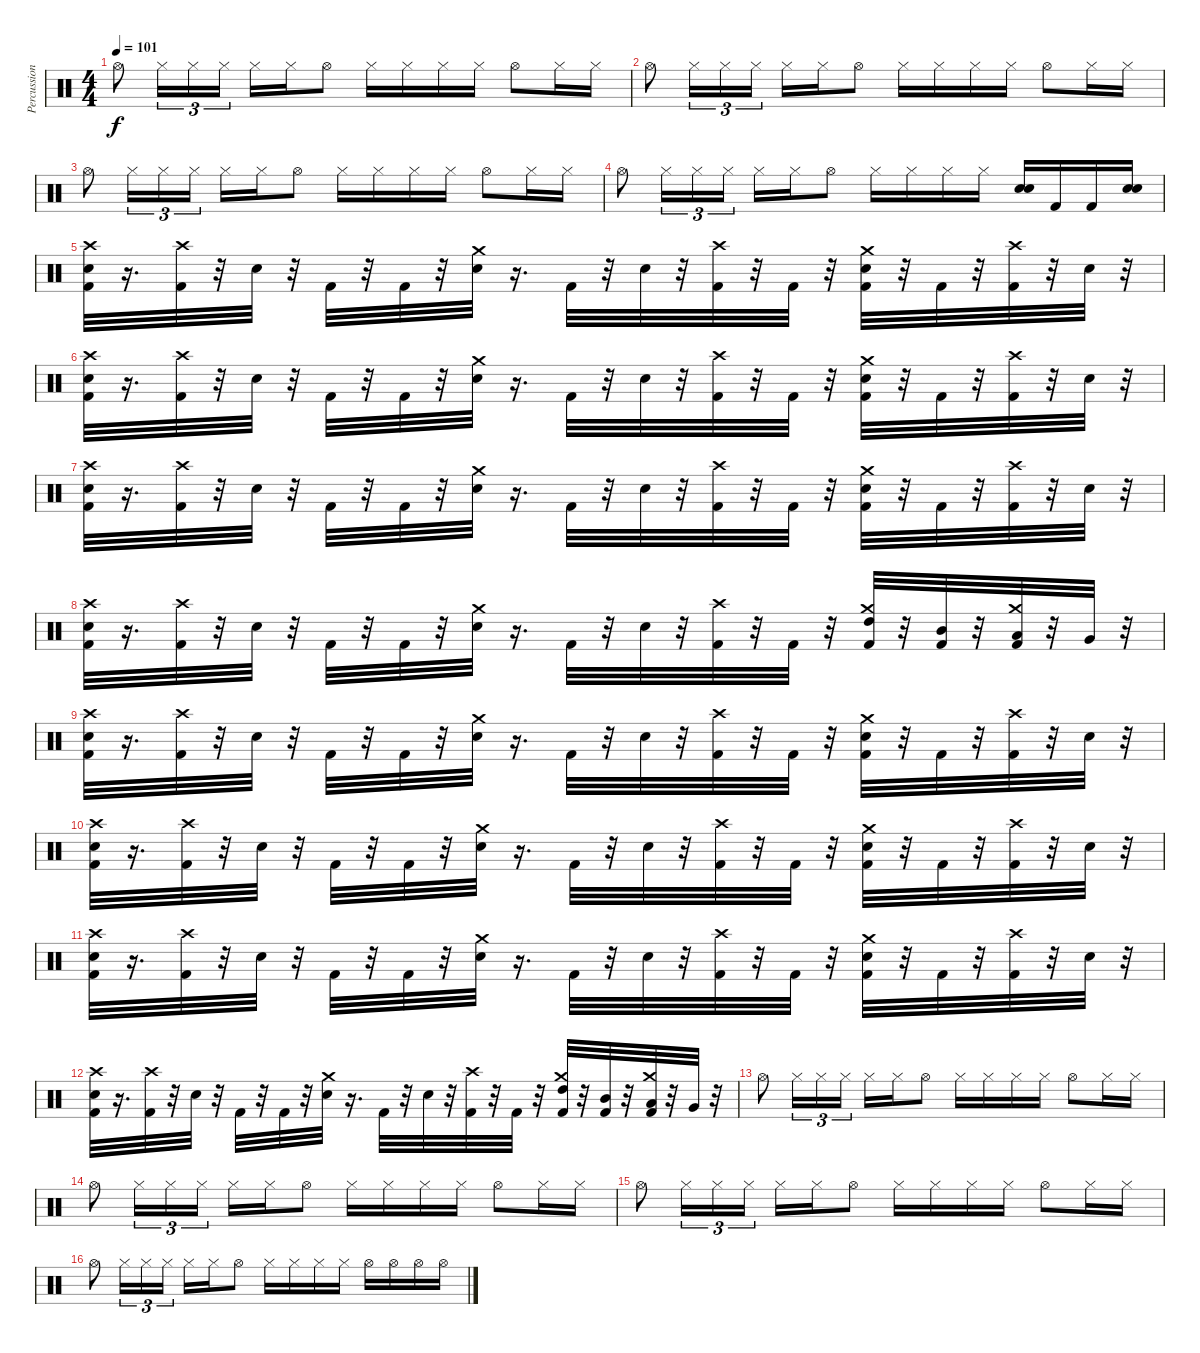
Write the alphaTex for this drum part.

\track ("Percussion" "Percussion") {instrument percussion}
\staff {score}
\articulation defaults
\ts (4 4)
\tempo 101
\clef neutral
\ks c "Hi-Hat (open)".8{dy f} "Hi-Hat (closed)".16{tu (3 2)} "Hi-Hat (closed)".16{tu (3 2)} "Hi-Hat (closed)".16{tu (3 2)} "Hi-Hat (closed)".16 "Hi-Hat (closed)".16 "Hi-Hat (open)".8 "Hi-Hat (closed)".16 "Hi-Hat (closed)".16 "Hi-Hat (closed)".16 "Hi-Hat (closed)".16 "Hi-Hat (open)".8 "Hi-Hat (closed)".16 "Hi-Hat (closed)".16
|
"Hi-Hat (open)".8 "Hi-Hat (closed)".16{tu (3 2)} "Hi-Hat (closed)".16{tu (3 2)} "Hi-Hat (closed)".16{tu (3 2)} "Hi-Hat (closed)".16 "Hi-Hat (closed)".16 "Hi-Hat (open)".8 "Hi-Hat (closed)".16 "Hi-Hat (closed)".16 "Hi-Hat (closed)".16 "Hi-Hat (closed)".16 "Hi-Hat (open)".8 "Hi-Hat (closed)".16 "Hi-Hat (closed)".16 |
"Hi-Hat (open)".8 "Hi-Hat (closed)".16{tu (3 2)} "Hi-Hat (closed)".16{tu (3 2)} "Hi-Hat (closed)".16{tu (3 2)} "Hi-Hat (closed)".16 "Hi-Hat (closed)".16 "Hi-Hat (open)".8 "Hi-Hat (closed)".16 "Hi-Hat (closed)".16 "Hi-Hat (closed)".16 "Hi-Hat (closed)".16 "Hi-Hat (open)".8 "Hi-Hat (closed)".16 "Hi-Hat (closed)".16 |
"Hi-Hat (open)".8 "Hi-Hat (closed)".16{tu (3 2)} "Hi-Hat (closed)".16{tu (3 2)} "Hi-Hat (closed)".16{tu (3 2)} "Hi-Hat (closed)".16 "Hi-Hat (closed)".16 "Hi-Hat (open)".8 "Hi-Hat (closed)".16 "Hi-Hat (closed)".16 "Hi-Hat (closed)".16 "Hi-Hat (closed)".16 ("Snare (hit) 2" "Electric Snare (hit)").16 "Kick (hit) 2".16 "Kick (hit) 2".16 ("Snare (hit) 2" "Electric Snare (hit)").16 |
("Crash high (hit)" "Snare (hit) 2" "Kick (hit) 2").32 r.16{d} ("Crash high (hit)" "Kick (hit) 2").32 r.32 "Snare (hit) 2".32 r.32 "Kick (hit) 2".32 r.32 "Kick (hit) 2".32 r.32 ("Crash medium (hit)" "Snare (hit) 2").32 r.16{d} "Kick (hit) 2".32 r.32 "Snare (hit) 2".32 r.32 ("Crash high (hit)" "Kick (hit) 2").32 r.32 "Kick (hit) 2".32 r.32 ("Crash medium (hit)" "Snare (hit) 2" "Kick (hit) 2").32 r.32 "Kick (hit) 2".32 r.32 ("Crash high (hit)" "Kick (hit) 2").32 r.32 "Snare (hit) 2".32 r.32 |
("Crash high (hit)" "Snare (hit) 2" "Kick (hit) 2").32 r.16{d} ("Crash high (hit)" "Kick (hit) 2").32 r.32 "Snare (hit) 2".32 r.32 "Kick (hit) 2".32 r.32 "Kick (hit) 2".32 r.32 ("Crash medium (hit)" "Snare (hit) 2").32 r.16{d} "Kick (hit) 2".32 r.32 "Snare (hit) 2".32 r.32 ("Crash high (hit)" "Kick (hit) 2").32 r.32 "Kick (hit) 2".32 r.32 ("Crash medium (hit)" "Snare (hit) 2" "Kick (hit) 2").32 r.32 "Kick (hit) 2".32 r.32 ("Crash high (hit)" "Kick (hit) 2").32 r.32 "Snare (hit) 2".32 r.32 |
("Crash high (hit)" "Snare (hit) 2" "Kick (hit) 2").32 r.16{d} ("Crash high (hit)" "Kick (hit) 2").32 r.32 "Snare (hit) 2".32 r.32 "Kick (hit) 2".32 r.32 "Kick (hit) 2".32 r.32 ("Crash medium (hit)" "Snare (hit) 2").32 r.16{d} "Kick (hit) 2".32 r.32 "Snare (hit) 2".32 r.32 ("Crash high (hit)" "Kick (hit) 2").32 r.32 "Kick (hit) 2".32 r.32 ("Crash medium (hit)" "Snare (hit) 2" "Kick (hit) 2").32 r.32 "Kick (hit) 2".32 r.32 ("Crash high (hit)" "Kick (hit) 2").32 r.32 "Snare (hit) 2".32 r.32 |
("Crash high (hit)" "Snare (hit) 2" "Kick (hit) 2").32 r.16{d} ("Crash high (hit)" "Kick (hit) 2").32 r.32 "Snare (hit) 2".32 r.32 "Kick (hit) 2".32 r.32 "Kick (hit) 2".32 r.32 ("Crash medium (hit)" "Snare (hit) 2").32 r.16{d} "Kick (hit) 2".32 r.32 "Snare (hit) 2".32 r.32 ("Crash high (hit)" "Kick (hit) 2").32 r.32 "Kick (hit) 2".32 r.32 ("Crash medium (hit)" "High Tom (hit)" "Kick (hit) 2").32 r.32 ("Mid Tom (hit)" "Kick (hit) 2").32 r.32 ("Crash medium (hit)" "Low Tom (hit)" "Kick (hit) 2").32 r.32 "Very Low Tom (hit)".32 r.32 |
("Crash high (hit)" "Snare (hit) 2" "Kick (hit) 2").32 r.16{d} ("Crash high (hit)" "Kick (hit) 2").32 r.32 "Snare (hit) 2".32 r.32 "Kick (hit) 2".32 r.32 "Kick (hit) 2".32 r.32 ("Crash medium (hit)" "Snare (hit) 2").32 r.16{d} "Kick (hit) 2".32 r.32 "Snare (hit) 2".32 r.32 ("Crash high (hit)" "Kick (hit) 2").32 r.32 "Kick (hit) 2".32 r.32 ("Crash medium (hit)" "Snare (hit) 2" "Kick (hit) 2").32 r.32 "Kick (hit) 2".32 r.32 ("Crash high (hit)" "Kick (hit) 2").32 r.32 "Snare (hit) 2".32 r.32 |
("Crash high (hit)" "Snare (hit) 2" "Kick (hit) 2").32 r.16{d} ("Crash high (hit)" "Kick (hit) 2").32 r.32 "Snare (hit) 2".32 r.32 "Kick (hit) 2".32 r.32 "Kick (hit) 2".32 r.32 ("Crash medium (hit)" "Snare (hit) 2").32 r.16{d} "Kick (hit) 2".32 r.32 "Snare (hit) 2".32 r.32 ("Crash high (hit)" "Kick (hit) 2").32 r.32 "Kick (hit) 2".32 r.32 ("Crash medium (hit)" "Snare (hit) 2" "Kick (hit) 2").32 r.32 "Kick (hit) 2".32 r.32 ("Crash high (hit)" "Kick (hit) 2").32 r.32 "Snare (hit) 2".32 r.32 |
("Crash high (hit)" "Snare (hit) 2" "Kick (hit) 2").32 r.16{d} ("Crash high (hit)" "Kick (hit) 2").32 r.32 "Snare (hit) 2".32 r.32 "Kick (hit) 2".32 r.32 "Kick (hit) 2".32 r.32 ("Crash medium (hit)" "Snare (hit) 2").32 r.16{d} "Kick (hit) 2".32 r.32 "Snare (hit) 2".32 r.32 ("Crash high (hit)" "Kick (hit) 2").32 r.32 "Kick (hit) 2".32 r.32 ("Crash medium (hit)" "Snare (hit) 2" "Kick (hit) 2").32 r.32 "Kick (hit) 2".32 r.32 ("Crash high (hit)" "Kick (hit) 2").32 r.32 "Snare (hit) 2".32 r.32 |
("Crash high (hit)" "Snare (hit) 2" "Kick (hit) 2").32 r.16{d} ("Crash high (hit)" "Kick (hit) 2").32 r.32 "Snare (hit) 2".32 r.32 "Kick (hit) 2".32 r.32 "Kick (hit) 2".32 r.32 ("Crash medium (hit)" "Snare (hit) 2").32 r.16{d} "Kick (hit) 2".32 r.32 "Snare (hit) 2".32 r.32 ("Crash high (hit)" "Kick (hit) 2").32 r.32 "Kick (hit) 2".32 r.32 ("Crash medium (hit)" "High Tom (hit)" "Kick (hit) 2").32 r.32 ("Mid Tom (hit)" "Kick (hit) 2").32 r.32 ("Crash medium (hit)" "Low Tom (hit)" "Kick (hit) 2").32 r.32 "Very Low Tom (hit)".32 r.32 |
"Hi-Hat (open)".8 "Hi-Hat (closed)".16{tu (3 2)} "Hi-Hat (closed)".16{tu (3 2)} "Hi-Hat (closed)".16{tu (3 2)} "Hi-Hat (closed)".16 "Hi-Hat (closed)".16 "Hi-Hat (open)".8 "Hi-Hat (closed)".16 "Hi-Hat (closed)".16 "Hi-Hat (closed)".16 "Hi-Hat (closed)".16 "Hi-Hat (open)".8 "Hi-Hat (closed)".16 "Hi-Hat (closed)".16 |
"Hi-Hat (open)".8 "Hi-Hat (closed)".16{tu (3 2)} "Hi-Hat (closed)".16{tu (3 2)} "Hi-Hat (closed)".16{tu (3 2)} "Hi-Hat (closed)".16 "Hi-Hat (closed)".16 "Hi-Hat (open)".8 "Hi-Hat (closed)".16 "Hi-Hat (closed)".16 "Hi-Hat (closed)".16 "Hi-Hat (closed)".16 "Hi-Hat (open)".8 "Hi-Hat (closed)".16 "Hi-Hat (closed)".16 |
"Hi-Hat (open)".8 "Hi-Hat (closed)".16{tu (3 2)} "Hi-Hat (closed)".16{tu (3 2)} "Hi-Hat (closed)".16{tu (3 2)} "Hi-Hat (closed)".16 "Hi-Hat (closed)".16 "Hi-Hat (open)".8 "Hi-Hat (closed)".16 "Hi-Hat (closed)".16 "Hi-Hat (closed)".16 "Hi-Hat (closed)".16 "Hi-Hat (open)".8 "Hi-Hat (closed)".16 "Hi-Hat (closed)".16 |
"Hi-Hat (open)".8 "Hi-Hat (closed)".16{tu (3 2)} "Hi-Hat (closed)".16{tu (3 2)} "Hi-Hat (closed)".16{tu (3 2)} "Hi-Hat (closed)".16 "Hi-Hat (closed)".16 "Hi-Hat (open)".8 "Hi-Hat (closed)".16 "Hi-Hat (closed)".16 "Hi-Hat (closed)".16 "Hi-Hat (closed)".16 "Hi-Hat (open)".16 "Hi-Hat (open)".16 "Hi-Hat (open)".16 "Hi-Hat (open)".16
